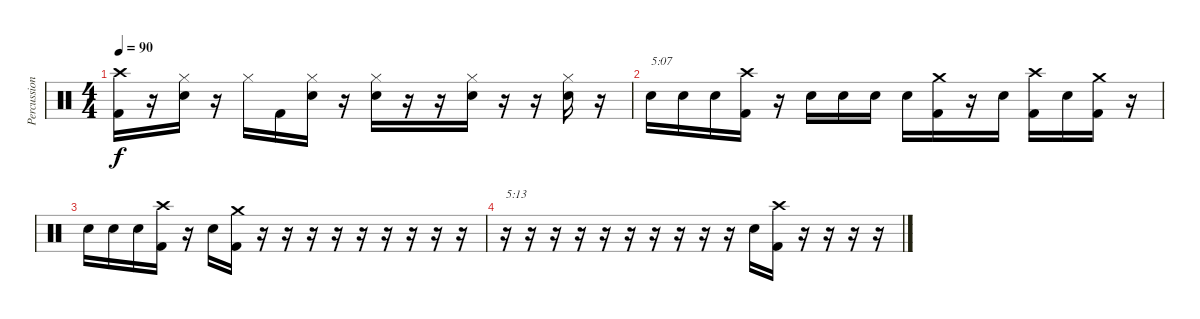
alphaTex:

\track ("Percussion" "Percussion") {instrument percussion}
\staff {score}
\articulation defaults
\ts (4 4)
\tempo 90
\clef neutral
\ks c
("Crash high (hit)" "Kick (hit) 2").16{dy f} r.16 ("Hi-Hat (closed)" "Snare (hit) 2").16 r.16 "Hi-Hat (closed)".16 "Kick (hit) 2".16 ("Hi-Hat (closed)" "Snare (hit) 2").16 r.16 ("Hi-Hat (closed)" "Snare (hit) 2").16 r.16 r.16 ("Hi-Hat (closed)" "Snare (hit) 2").16 r.16 r.16 ("Hi-Hat (closed)" "Snare (hit) 2").16 r.16 |
"Snare (hit) 2".16{txt "5:07"} "Snare (hit) 2".16 "Snare (hit) 2".16 ("Crash high (hit)" "Kick (hit) 2").16 r.16 "Snare (hit) 2".16 "Snare (hit) 2".16 "Snare (hit) 2".16 "Snare (hit) 2".16 ("Crash medium (hit)" "Kick (hit) 2").16 r.16 "Snare (hit) 2".16 ("Crash high (hit)" "Kick (hit) 2").16 "Snare (hit) 2".16 ("Crash medium (hit)" "Kick (hit) 2").16 r.16 |
"Snare (hit) 2".16 "Snare (hit) 2".16 "Snare (hit) 2".16 ("Crash high (hit)" "Kick (hit) 2").16 r.16 "Snare (hit) 2".16 ("Crash medium (hit)" "Kick (hit) 2").16 r.16 r.16 r.16 r.16 r.16 r.16 r.16 r.16 r.16 |
r.16{txt "5:13"} r.16 r.16 r.16 r.16 r.16 r.16 r.16 r.16 r.16 "Snare (hit) 2".16 ("Crash high (hit)" "Kick (hit) 2").16 r.16 r.16 r.16 r.16
